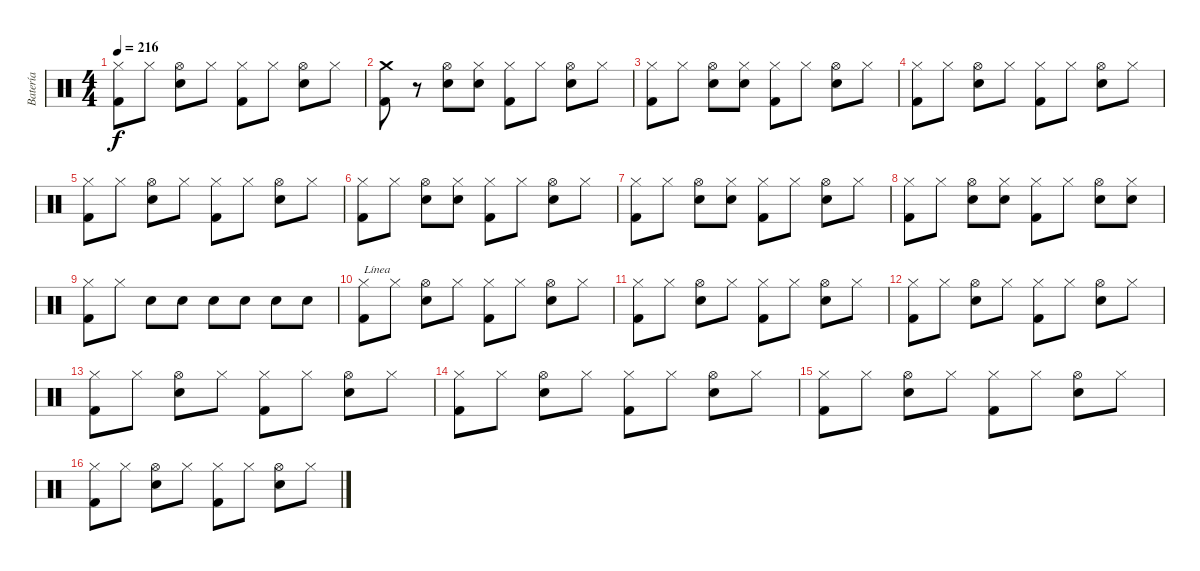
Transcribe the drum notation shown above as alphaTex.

\track ("Batería" "Batería") {instrument percussion}
\staff {score}
\articulation defaults
\ts (4 4)
\tempo 216
\clef neutral
\ks c
("Kick (hit) 2" "Hi-Hat (closed)").8{dy f} "Hi-Hat (closed)".8 ("Electric Snare (hit)" "Hi-Hat (open)").8 "Hi-Hat (closed)".8 ("Kick (hit) 2" "Hi-Hat (closed)").8 "Hi-Hat (closed)".8 ("Electric Snare (hit)" "Hi-Hat (open)").8 "Hi-Hat (closed)".8 |
("Kick (hit) 2" "Crash medium (hit)").8 r.8 ("Electric Snare (hit)" "Hi-Hat (open)").8 ("Electric Snare (hit)" "Hi-Hat (closed)").8 ("Kick (hit) 2" "Hi-Hat (closed)").8 "Hi-Hat (closed)".8 ("Electric Snare (hit)" "Hi-Hat (open)").8 "Hi-Hat (closed)".8 |
("Kick (hit) 2" "Hi-Hat (closed)").8 "Hi-Hat (closed)".8 ("Electric Snare (hit)" "Hi-Hat (open)").8 ("Electric Snare (hit)" "Hi-Hat (closed)").8 ("Kick (hit) 2" "Hi-Hat (closed)").8 "Hi-Hat (closed)".8 ("Electric Snare (hit)" "Hi-Hat (open)").8 "Hi-Hat (closed)".8 |
("Kick (hit) 2" "Hi-Hat (closed)").8 "Hi-Hat (closed)".8 ("Electric Snare (hit)" "Hi-Hat (open)").8 "Hi-Hat (closed)".8 ("Kick (hit) 2" "Hi-Hat (closed)").8 "Hi-Hat (closed)".8 ("Electric Snare (hit)" "Hi-Hat (open)").8 "Hi-Hat (closed)".8 |
("Kick (hit) 2" "Hi-Hat (closed)").8 "Hi-Hat (closed)".8 ("Electric Snare (hit)" "Hi-Hat (open)").8 "Hi-Hat (closed)".8 ("Kick (hit) 2" "Hi-Hat (closed)").8 "Hi-Hat (closed)".8 ("Electric Snare (hit)" "Hi-Hat (open)").8 "Hi-Hat (closed)".8 |
("Kick (hit) 2" "Hi-Hat (closed)").8 "Hi-Hat (closed)".8 ("Electric Snare (hit)" "Hi-Hat (open)").8 ("Electric Snare (hit)" "Hi-Hat (closed)").8 ("Kick (hit) 2" "Hi-Hat (closed)").8 "Hi-Hat (closed)".8 ("Electric Snare (hit)" "Hi-Hat (open)").8 "Hi-Hat (closed)".8 |
("Kick (hit) 2" "Hi-Hat (closed)").8 "Hi-Hat (closed)".8 ("Electric Snare (hit)" "Hi-Hat (open)").8 ("Electric Snare (hit)" "Hi-Hat (closed)").8 ("Kick (hit) 2" "Hi-Hat (closed)").8 "Hi-Hat (closed)".8 ("Electric Snare (hit)" "Hi-Hat (open)").8 "Hi-Hat (closed)".8 |
("Kick (hit) 2" "Hi-Hat (closed)").8 "Hi-Hat (closed)".8 ("Electric Snare (hit)" "Hi-Hat (open)").8 ("Electric Snare (hit)" "Hi-Hat (closed)").8 ("Kick (hit) 2" "Hi-Hat (closed)").8 "Hi-Hat (closed)".8 ("Electric Snare (hit)" "Hi-Hat (open)").8 ("Electric Snare (hit)" "Hi-Hat (closed)").8 |
("Kick (hit) 2" "Hi-Hat (closed)").8 "Hi-Hat (closed)".8 "Electric Snare (hit)".8 "Electric Snare (hit)".8 "Electric Snare (hit)".8 "Electric Snare (hit)".8 "Electric Snare (hit)".8 "Electric Snare (hit)".8 |
("Kick (hit) 2" "Hi-Hat (closed)").8{txt "Línea"} "Hi-Hat (closed)".8 ("Electric Snare (hit)" "Hi-Hat (open)").8 "Hi-Hat (closed)".8 ("Kick (hit) 2" "Hi-Hat (closed)").8 "Hi-Hat (closed)".8 ("Electric Snare (hit)" "Hi-Hat (open)").8 "Hi-Hat (closed)".8 |
("Kick (hit) 2" "Hi-Hat (closed)").8 "Hi-Hat (closed)".8 ("Electric Snare (hit)" "Hi-Hat (open)").8 "Hi-Hat (closed)".8 ("Kick (hit) 2" "Hi-Hat (closed)").8 "Hi-Hat (closed)".8 ("Electric Snare (hit)" "Hi-Hat (open)").8 "Hi-Hat (closed)".8 |
("Kick (hit) 2" "Hi-Hat (closed)").8 "Hi-Hat (closed)".8 ("Electric Snare (hit)" "Hi-Hat (open)").8 "Hi-Hat (closed)".8 ("Kick (hit) 2" "Hi-Hat (closed)").8 "Hi-Hat (closed)".8 ("Electric Snare (hit)" "Hi-Hat (open)").8 "Hi-Hat (closed)".8 |
("Kick (hit) 2" "Hi-Hat (closed)").8 "Hi-Hat (closed)".8 ("Electric Snare (hit)" "Hi-Hat (open)").8 "Hi-Hat (closed)".8 ("Kick (hit) 2" "Hi-Hat (closed)").8 "Hi-Hat (closed)".8 ("Electric Snare (hit)" "Hi-Hat (open)").8 "Hi-Hat (closed)".8 |
("Kick (hit) 2" "Hi-Hat (closed)").8 "Hi-Hat (closed)".8 ("Electric Snare (hit)" "Hi-Hat (open)").8 "Hi-Hat (closed)".8 ("Kick (hit) 2" "Hi-Hat (closed)").8 "Hi-Hat (closed)".8 ("Electric Snare (hit)" "Hi-Hat (open)").8 "Hi-Hat (closed)".8 |
("Kick (hit) 2" "Hi-Hat (closed)").8 "Hi-Hat (closed)".8 ("Electric Snare (hit)" "Hi-Hat (open)").8 "Hi-Hat (closed)".8 ("Kick (hit) 2" "Hi-Hat (closed)").8 "Hi-Hat (closed)".8 ("Electric Snare (hit)" "Hi-Hat (open)").8 "Hi-Hat (closed)".8 |
("Kick (hit) 2" "Hi-Hat (closed)").8 "Hi-Hat (closed)".8 ("Electric Snare (hit)" "Hi-Hat (open)").8 "Hi-Hat (closed)".8 ("Kick (hit) 2" "Hi-Hat (closed)").8 "Hi-Hat (closed)".8 ("Electric Snare (hit)" "Hi-Hat (open)").8 "Hi-Hat (closed)".8
